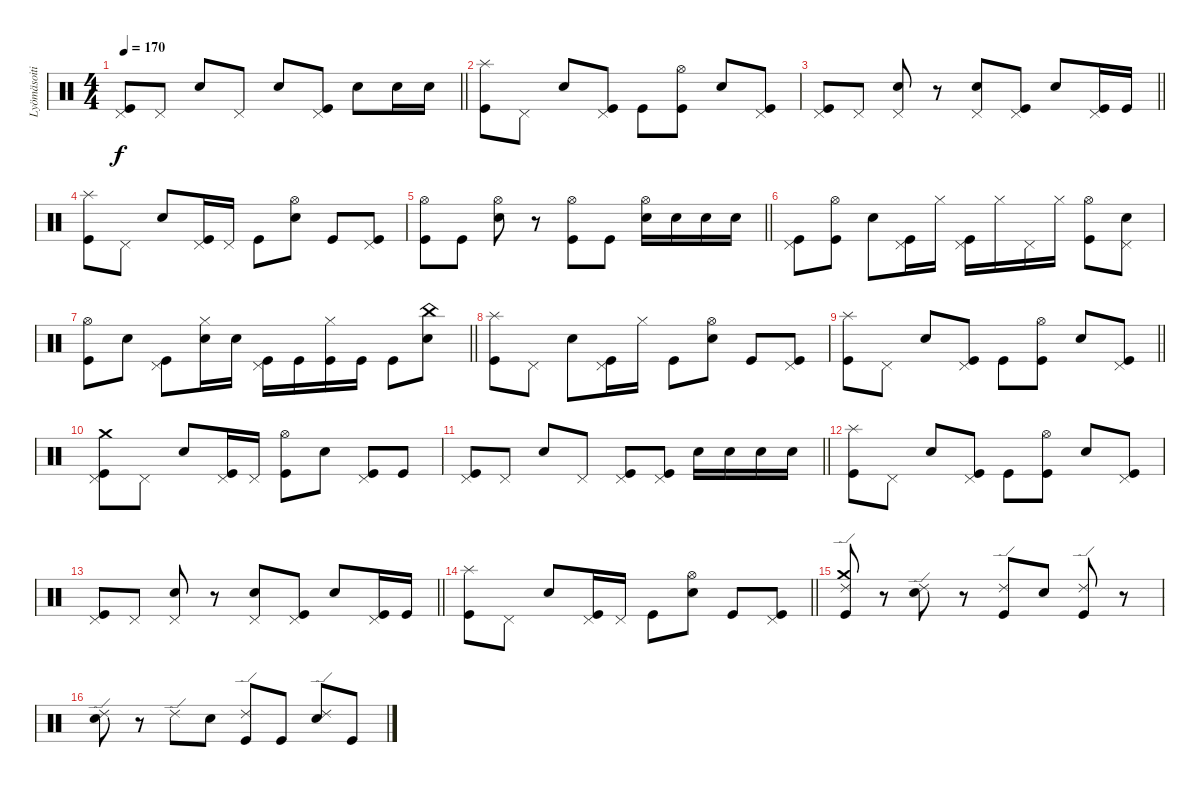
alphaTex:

\track ("Lyömäsoitin" "Lyömäsoiti") {instrument percussion}
\staff {score}
\articulation defaults
\ts (4 4)
\tempo 170
\clef neutral
\barLineRight lightlight
\ks c
("Pedal Hi-Hat (hit)" "Kick (hit)").8{dy f} "Pedal Hi-Hat (hit)".8 "Snare (hit) 2".8 "Pedal Hi-Hat (hit)".8 "Snare (hit) 2".8 ("Pedal Hi-Hat (hit)" "Kick (hit)").8 "Snare (hit) 2".8 "Snare (hit) 2".16 "Snare (hit) 2".16 |
("Splash (hit)" "Kick (hit)").8 "Pedal Hi-Hat (hit)".8 "Snare (hit) 2".8 ("Pedal Hi-Hat (hit)" "Kick (hit)").8 "Kick (hit)".8 ("Hi-Hat (open)" "Kick (hit)").8 "Snare (hit) 2".8 ("Pedal Hi-Hat (hit)" "Kick (hit)").8 |
\barLineRight lightlight
("Pedal Hi-Hat (hit)" "Kick (hit)").8 "Pedal Hi-Hat (hit)".8 ("Snare (hit) 2" "Pedal Hi-Hat (hit)").8 r.8 ("Snare (hit) 2" "Pedal Hi-Hat (hit)").8 ("Pedal Hi-Hat (hit)" "Kick (hit)").8 "Snare (hit) 2".8 ("Pedal Hi-Hat (hit)" "Kick (hit)").16 "Kick (hit)".16 |
("Splash (hit)" "Kick (hit)").8 "Pedal Hi-Hat (hit)".8 "Snare (hit) 2".8 ("Pedal Hi-Hat (hit)" "Kick (hit)").16 "Pedal Hi-Hat (hit)".16 "Kick (hit)".8 ("Snare (hit) 2" "Hi-Hat (open)").8 "Kick (hit)".8 ("Pedal Hi-Hat (hit)" "Kick (hit)").8 |
\barLineRight lightlight
("Hi-Hat (open)" "Kick (hit)").8 "Kick (hit)".8 ("Hi-Hat (open)" "Snare (hit) 2").8 r.8 ("Hi-Hat (open)" "Kick (hit)").8 "Kick (hit)".8 ("Hi-Hat (open)" "Snare (hit) 2").16 "Snare (hit) 2".16 "Snare (hit) 2".16 "Snare (hit) 2".16 |
("Pedal Hi-Hat (hit)" "Kick (hit)").8 ("Hi-Hat (open)" "Kick (hit)").8 "Snare (hit) 2".8 ("Pedal Hi-Hat (hit)" "Kick (hit)").16 "Hi-Hat (closed)".16 ("Pedal Hi-Hat (hit)" "Kick (hit)").16 "Hi-Hat (closed)".16 "Pedal Hi-Hat (hit)".16 "Hi-Hat (closed)".16 ("Hi-Hat (open)" "Kick (hit)").8 ("Pedal Hi-Hat (hit)" "Snare (hit) 2").8 |
\barLineRight lightlight
("Hi-Hat (open)" "Kick (hit)").8 "Snare (hit) 2".8 ("Pedal Hi-Hat (hit)" "Kick (hit)").8 ("Hi-Hat (closed)" "Snare (hit) 2").16 "Snare (hit) 2".16 ("Pedal Hi-Hat (hit)" "Kick (hit)").16 "Kick (hit)".16 ("Hi-Hat (closed)" "Kick (hit)").16 "Kick (hit)".16 "Kick (hit)".8 ("China (hit)" "Snare (hit) 2").8 |
("Splash (hit)" "Kick (hit)").8 "Pedal Hi-Hat (hit)".8 "Snare (hit) 2".8 ("Pedal Hi-Hat (hit)" "Kick (hit)").16 "Hi-Hat (closed)".16 "Kick (hit)".8 ("Snare (hit) 2" "Hi-Hat (open)").8 "Kick (hit)".8 ("Pedal Hi-Hat (hit)" "Kick (hit)").8 |
\barLineRight lightlight
("Splash (hit)" "Kick (hit)").8 "Pedal Hi-Hat (hit)".8 "Snare (hit) 2".8 ("Pedal Hi-Hat (hit)" "Kick (hit)").8 "Kick (hit)".8 ("Hi-Hat (open)" "Kick (hit)").8 "Snare (hit) 2".8 ("Pedal Hi-Hat (hit)" "Kick (hit)").8 |
("Crash medium (hit)" "Pedal Hi-Hat (hit)" "Kick (hit)").8 "Pedal Hi-Hat (hit)".8 "Snare (hit) 2".8 ("Pedal Hi-Hat (hit)" "Kick (hit)").16 "Pedal Hi-Hat (hit)".16 ("Hi-Hat (open)" "Kick (hit)").8 "Snare (hit) 2".8 ("Pedal Hi-Hat (hit)" "Kick (hit)").8 "Kick (hit)".8 |
\barLineRight lightlight
("Pedal Hi-Hat (hit)" "Kick (hit)").8 "Pedal Hi-Hat (hit)".8 "Snare (hit) 2".8 "Pedal Hi-Hat (hit)".8 ("Pedal Hi-Hat (hit)" "Kick (hit)").8 ("Pedal Hi-Hat (hit)" "Kick (hit)").8 "Snare (hit) 2".16 "Snare (hit) 2".16 "Snare (hit) 2".16 "Snare (hit) 2".16 |
("Splash (hit)" "Kick (hit)").8 "Pedal Hi-Hat (hit)".8 "Snare (hit) 2".8 ("Pedal Hi-Hat (hit)" "Kick (hit)").8 "Kick (hit)".8 ("Hi-Hat (open)" "Kick (hit)").8 "Snare (hit) 2".8 ("Pedal Hi-Hat (hit)" "Kick (hit)").8 |
\barLineRight lightlight
("Pedal Hi-Hat (hit)" "Kick (hit)").8 "Pedal Hi-Hat (hit)".8 ("Snare (hit) 2" "Pedal Hi-Hat (hit)").8 r.8 ("Snare (hit) 2" "Pedal Hi-Hat (hit)").8 ("Pedal Hi-Hat (hit)" "Kick (hit)").8 "Snare (hit) 2".8 ("Pedal Hi-Hat (hit)" "Kick (hit)").16 "Kick (hit)".16 |
\barLineRight lightlight
("Splash (hit)" "Kick (hit)").8 "Pedal Hi-Hat (hit)".8 "Snare (hit) 2".8 ("Pedal Hi-Hat (hit)" "Kick (hit)").16 "Pedal Hi-Hat (hit)".16 "Kick (hit)".8 ("Snare (hit) 2" "Hi-Hat (open)").8 "Kick (hit)".8 ("Pedal Hi-Hat (hit)" "Kick (hit)").8 |
\section ("" "")
("Crash medium (hit)" "Ride (edge) 2" "Kick (hit)").8 r.8 ("Ride (edge) 2" "Snare (hit) 2").8 r.8 ("Ride (edge) 2" "Kick (hit)").8 "Snare (hit) 2".8 ("Ride (edge) 2" "Kick (hit)").8 r.8 |
("Ride (edge) 2" "Snare (hit) 2").8 r.8 "Ride (edge) 2".8 "Snare (hit) 2".8 ("Ride (edge) 2" "Kick (hit)").8 "Kick (hit)".8 ("Ride (edge) 2" "Snare (hit) 2").8 "Kick (hit)".8
